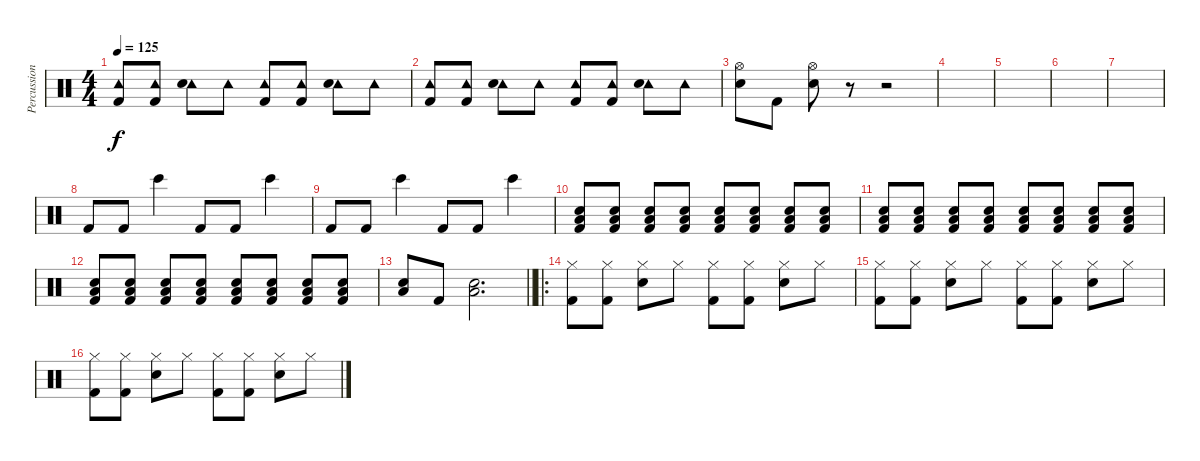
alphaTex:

\track ("Percussions" "Percussion") {instrument percussion}
\staff {score}
\articulation defaults
\ts (4 4)
\tempo 125
\clef neutral
\ks c
("Tambourine (hit)" "Kick (hit) 2").8{dy f} ("Tambourine (hit)" "Kick (hit) 2").8 ("Tambourine (hit)" "Electric Snare (hit)").8 "Tambourine (hit)".8 ("Tambourine (hit)" "Kick (hit) 2").8 ("Tambourine (hit)" "Kick (hit) 2").8 ("Tambourine (hit)" "Electric Snare (hit)").8 "Tambourine (hit)".8 |
("Tambourine (hit)" "Kick (hit) 2").8 ("Tambourine (hit)" "Kick (hit) 2").8 ("Tambourine (hit)" "Electric Snare (hit)").8 "Tambourine (hit)".8 ("Tambourine (hit)" "Kick (hit) 2").8 ("Tambourine (hit)" "Kick (hit) 2").8 ("Tambourine (hit)" "Electric Snare (hit)").8 "Tambourine (hit)".8 |
("Hi-Hat (open)" "Electric Snare (hit)").8 "Kick (hit) 2".8 ("Hi-Hat (open)" "Electric Snare (hit)").8 r.8 r.2 |
|
|
|
|
"Kick (hit) 2".8 "Kick (hit) 2".8 "Bongo High (hit)".4 "Kick (hit) 2".8 "Kick (hit) 2".8 "Bongo High (hit)".4 |
"Kick (hit) 2".8 "Kick (hit) 2".8 "Bongo High (hit)".4 "Kick (hit) 2".8 "Kick (hit) 2".8 "Bongo High (hit)".4 |
("Low Tom (hit)" "Electric Snare (hit)" "Kick (hit) 2").8 ("Low Tom (hit)" "Electric Snare (hit)" "Kick (hit) 2").8 ("Low Tom (hit)" "Electric Snare (hit)" "Kick (hit) 2").8 ("Low Tom (hit)" "Electric Snare (hit)" "Kick (hit) 2").8 ("Low Tom (hit)" "Electric Snare (hit)" "Kick (hit) 2").8 ("Low Tom (hit)" "Electric Snare (hit)" "Kick (hit) 2").8 ("Low Tom (hit)" "Electric Snare (hit)" "Kick (hit) 2").8 ("Low Tom (hit)" "Electric Snare (hit)" "Kick (hit) 2").8 |
("Low Tom (hit)" "Electric Snare (hit)" "Kick (hit) 2").8 ("Low Tom (hit)" "Electric Snare (hit)" "Kick (hit) 2").8 ("Low Tom (hit)" "Electric Snare (hit)" "Kick (hit) 2").8 ("Low Tom (hit)" "Electric Snare (hit)" "Kick (hit) 2").8 ("Low Tom (hit)" "Electric Snare (hit)" "Kick (hit) 2").8 ("Low Tom (hit)" "Electric Snare (hit)" "Kick (hit) 2").8 ("Low Tom (hit)" "Electric Snare (hit)" "Kick (hit) 2").8 ("Low Tom (hit)" "Electric Snare (hit)" "Kick (hit) 2").8 |
("Low Tom (hit)" "Electric Snare (hit)" "Kick (hit) 2").8 ("Low Tom (hit)" "Electric Snare (hit)" "Kick (hit) 2").8 ("Low Tom (hit)" "Electric Snare (hit)" "Kick (hit) 2").8 ("Low Tom (hit)" "Electric Snare (hit)" "Kick (hit) 2").8 ("Low Tom (hit)" "Electric Snare (hit)" "Kick (hit) 2").8 ("Low Tom (hit)" "Electric Snare (hit)" "Kick (hit) 2").8 ("Low Tom (hit)" "Electric Snare (hit)" "Kick (hit) 2").8 ("Low Tom (hit)" "Electric Snare (hit)" "Kick (hit) 2").8 |
\barLineRight lightlight
("Low Tom (hit)" "Electric Snare (hit)").8 "Kick (hit) 2".8 ("Low Tom (hit)" "Electric Snare (hit)").2{d} |
\ro
("Hi-Hat (closed)" "Kick (hit) 2").8 ("Hi-Hat (closed)" "Kick (hit) 2").8 ("Hi-Hat (closed)" "Electric Snare (hit)").8 "Hi-Hat (closed)".8 ("Hi-Hat (closed)" "Kick (hit) 2").8 ("Hi-Hat (closed)" "Kick (hit) 2").8 ("Hi-Hat (closed)" "Electric Snare (hit)").8 "Hi-Hat (closed)".8 |
("Hi-Hat (closed)" "Kick (hit) 2").8 ("Hi-Hat (closed)" "Kick (hit) 2").8 ("Hi-Hat (closed)" "Electric Snare (hit)").8 "Hi-Hat (closed)".8 ("Hi-Hat (closed)" "Kick (hit) 2").8 ("Hi-Hat (closed)" "Kick (hit) 2").8 ("Hi-Hat (closed)" "Electric Snare (hit)").8 "Hi-Hat (closed)".8 |
("Hi-Hat (closed)" "Kick (hit) 2").8 ("Hi-Hat (closed)" "Kick (hit) 2").8 ("Hi-Hat (closed)" "Electric Snare (hit)").8 "Hi-Hat (closed)".8 ("Hi-Hat (closed)" "Kick (hit) 2").8 ("Hi-Hat (closed)" "Kick (hit) 2").8 ("Hi-Hat (closed)" "Electric Snare (hit)").8 "Hi-Hat (closed)".8
